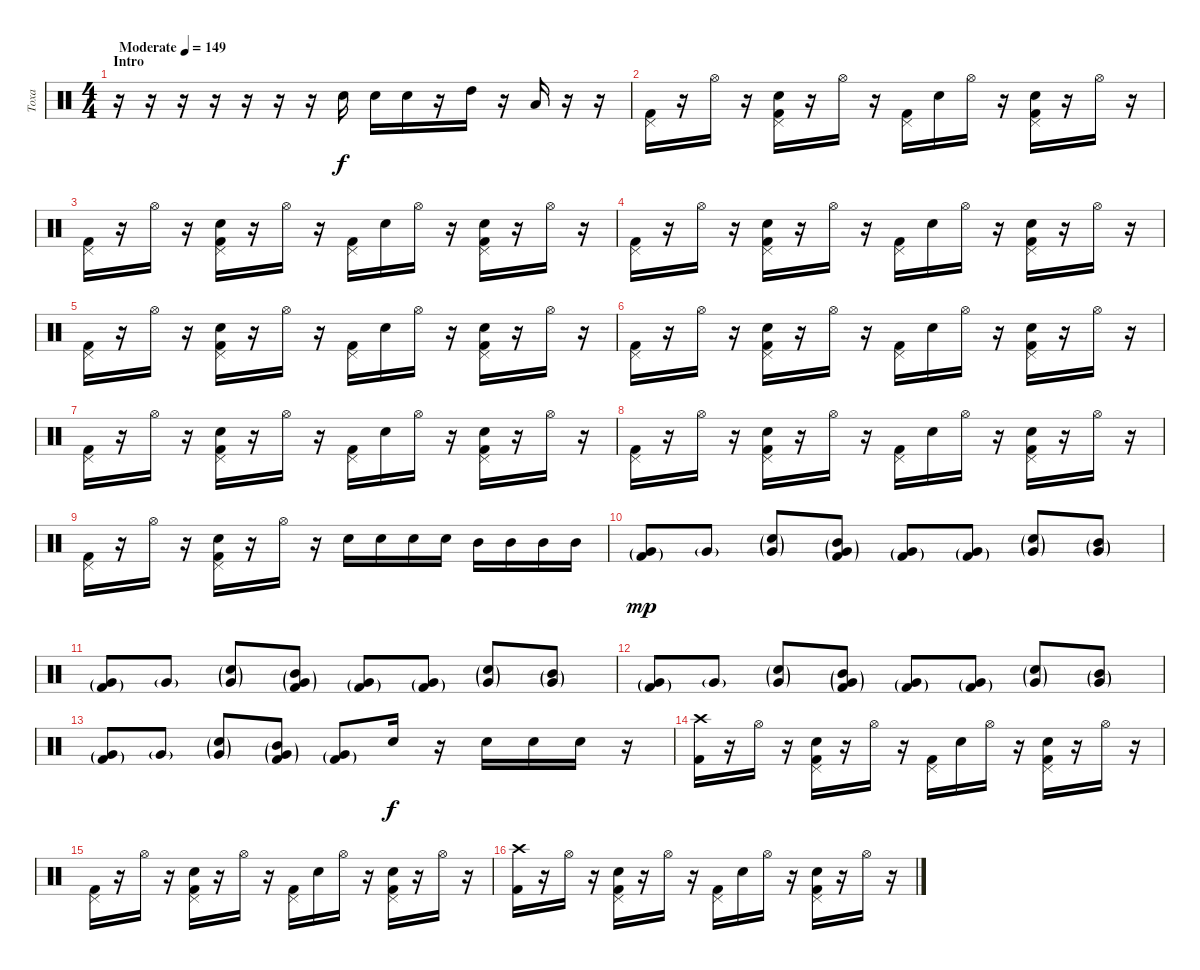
\track ("Toxa" "Toxa") {instrument percussion}
\staff {score}
\articulation defaults
\ts (4 4)
\section ("" "Intro")
\tempo (149 "Moderate")
\clef neutral
\ks c
r.16{dy f} r.16 r.16 r.16 r.16 r.16 r.16 "Snare (hit) 2".16 "Snare (hit) 2".16 "Snare (hit) 2".16 r.16 "High Tom (hit)".16 r.16 "Low Tom (hit)".16 r.16 r.16 |
("Kick (hit) 2" "Pedal Hi-Hat (hit)").16 r.16 "Hi-Hat (open)".16 r.16 ("Snare (hit) 2" "Pedal Hi-Hat (hit)" "Kick (hit) 2").16 r.16 "Hi-Hat (open)".16 r.16 ("Kick (hit) 2" "Pedal Hi-Hat (hit)").16 "Snare (hit) 2".16 "Hi-Hat (open)".16 r.16 ("Snare (hit) 2" "Kick (hit) 2" "Pedal Hi-Hat (hit)").16 r.16 "Hi-Hat (open)".16 r.16 |
("Kick (hit) 2" "Pedal Hi-Hat (hit)").16 r.16 "Hi-Hat (open)".16 r.16 ("Snare (hit) 2" "Pedal Hi-Hat (hit)" "Kick (hit) 2").16 r.16 "Hi-Hat (open)".16 r.16 ("Kick (hit) 2" "Pedal Hi-Hat (hit)").16 "Snare (hit) 2".16 "Hi-Hat (open)".16 r.16 ("Snare (hit) 2" "Kick (hit) 2" "Pedal Hi-Hat (hit)").16 r.16 "Hi-Hat (open)".16 r.16 |
("Kick (hit) 2" "Pedal Hi-Hat (hit)").16 r.16 "Hi-Hat (open)".16 r.16 ("Snare (hit) 2" "Pedal Hi-Hat (hit)" "Kick (hit) 2").16 r.16 "Hi-Hat (open)".16 r.16 ("Kick (hit) 2" "Pedal Hi-Hat (hit)").16 "Snare (hit) 2".16 "Hi-Hat (open)".16 r.16 ("Snare (hit) 2" "Kick (hit) 2" "Pedal Hi-Hat (hit)").16 r.16 "Hi-Hat (open)".16 r.16 |
("Kick (hit) 2" "Pedal Hi-Hat (hit)").16 r.16 "Hi-Hat (open)".16 r.16 ("Snare (hit) 2" "Pedal Hi-Hat (hit)" "Kick (hit) 2").16 r.16 "Hi-Hat (open)".16 r.16 ("Kick (hit) 2" "Pedal Hi-Hat (hit)").16 "Snare (hit) 2".16 "Hi-Hat (open)".16 r.16 ("Snare (hit) 2" "Kick (hit) 2" "Pedal Hi-Hat (hit)").16 r.16 "Hi-Hat (open)".16 r.16 |
("Kick (hit) 2" "Pedal Hi-Hat (hit)").16 r.16 "Hi-Hat (open)".16 r.16 ("Snare (hit) 2" "Pedal Hi-Hat (hit)" "Kick (hit) 2").16 r.16 "Hi-Hat (open)".16 r.16 ("Kick (hit) 2" "Pedal Hi-Hat (hit)").16 "Snare (hit) 2".16 "Hi-Hat (open)".16 r.16 ("Snare (hit) 2" "Kick (hit) 2" "Pedal Hi-Hat (hit)").16 r.16 "Hi-Hat (open)".16 r.16 |
("Kick (hit) 2" "Pedal Hi-Hat (hit)").16 r.16 "Hi-Hat (open)".16 r.16 ("Snare (hit) 2" "Pedal Hi-Hat (hit)" "Kick (hit) 2").16 r.16 "Hi-Hat (open)".16 r.16 ("Kick (hit) 2" "Pedal Hi-Hat (hit)").16 "Snare (hit) 2".16 "Hi-Hat (open)".16 r.16 ("Snare (hit) 2" "Kick (hit) 2" "Pedal Hi-Hat (hit)").16 r.16 "Hi-Hat (open)".16 r.16 |
("Kick (hit) 2" "Pedal Hi-Hat (hit)").16 r.16 "Hi-Hat (open)".16 r.16 ("Snare (hit) 2" "Pedal Hi-Hat (hit)" "Kick (hit) 2").16 r.16 "Hi-Hat (open)".16 r.16 ("Kick (hit) 2" "Pedal Hi-Hat (hit)").16 "Snare (hit) 2".16 "Hi-Hat (open)".16 r.16 ("Snare (hit) 2" "Kick (hit) 2" "Pedal Hi-Hat (hit)").16 r.16 "Hi-Hat (open)".16 r.16 |
("Kick (hit) 2" "Pedal Hi-Hat (hit)").16 r.16 "Hi-Hat (open)".16 r.16 ("Snare (hit) 2" "Pedal Hi-Hat (hit)" "Kick (hit) 2").16 r.16 "Hi-Hat (open)".16 r.16 "Snare (hit) 2".16 "Snare (hit) 2".16 "Snare (hit) 2".16 "Snare (hit) 2".16 "Mid Tom (hit)".16 "Mid Tom (hit)".16 "Mid Tom (hit)".16 "Mid Tom (hit)".16 |
("Kick (hit) 2"{g} "Very Low Tom (hit)"{g}).8{dy mp} "Very Low Tom (hit)"{g}.8 ("Very Low Tom (hit)"{g} "Snare (hit) 2"{g}).8 ("Very Low Tom (hit)"{g} "Kick (hit) 2"{g} "Mid Tom (hit)"{g}).8 ("Very Low Tom (hit)"{g} "Kick (hit) 2"{g}).8 ("Kick (hit) 2"{g} "Very Low Tom (hit)"{g}).8 ("Very Low Tom (hit)"{g} "Snare (hit) 2"{g}).8 ("Very Low Tom (hit)"{g} "Mid Tom (hit)"{g}).8 |
("Kick (hit) 2"{g} "Very Low Tom (hit)"{g}).8 "Very Low Tom (hit)"{g}.8 ("Very Low Tom (hit)"{g} "Snare (hit) 2"{g}).8 ("Very Low Tom (hit)"{g} "Kick (hit) 2"{g} "Mid Tom (hit)"{g}).8 ("Very Low Tom (hit)"{g} "Kick (hit) 2"{g}).8 ("Kick (hit) 2"{g} "Very Low Tom (hit)"{g}).8 ("Very Low Tom (hit)"{g} "Snare (hit) 2"{g}).8 ("Very Low Tom (hit)"{g} "Mid Tom (hit)"{g}).8 |
("Kick (hit) 2"{g} "Very Low Tom (hit)"{g}).8 "Very Low Tom (hit)"{g}.8 ("Very Low Tom (hit)"{g} "Snare (hit) 2"{g}).8 ("Very Low Tom (hit)"{g} "Kick (hit) 2"{g} "Mid Tom (hit)"{g}).8 ("Very Low Tom (hit)"{g} "Kick (hit) 2"{g}).8 ("Kick (hit) 2"{g} "Very Low Tom (hit)"{g}).8 ("Very Low Tom (hit)"{g} "Snare (hit) 2"{g}).8 ("Very Low Tom (hit)"{g} "Mid Tom (hit)"{g}).8 |
("Kick (hit) 2"{g} "Very Low Tom (hit)"{g}).8 "Very Low Tom (hit)"{g}.8 ("Very Low Tom (hit)"{g} "Snare (hit) 2"{g}).8 ("Very Low Tom (hit)"{g} "Kick (hit) 2"{g} "Mid Tom (hit)"{g}).8 ("Very Low Tom (hit)"{g} "Kick (hit) 2"{g}).8 "Snare (hit) 2".16{dy f} r.16 "Snare (hit) 2".16 "Snare (hit) 2".16 "Snare (hit) 2".16 r.16 |
("Kick (hit) 2" "Crash high (hit)").16 r.16 "Hi-Hat (open)".16 r.16 ("Snare (hit) 2" "Pedal Hi-Hat (hit)" "Kick (hit) 2").16 r.16 "Hi-Hat (open)".16 r.16 ("Kick (hit) 2" "Pedal Hi-Hat (hit)").16 "Snare (hit) 2".16 "Hi-Hat (open)".16 r.16 ("Snare (hit) 2" "Kick (hit) 2" "Pedal Hi-Hat (hit)").16 r.16 "Hi-Hat (open)".16 r.16 |
("Kick (hit) 2" "Pedal Hi-Hat (hit)").16 r.16 "Hi-Hat (open)".16 r.16 ("Snare (hit) 2" "Pedal Hi-Hat (hit)" "Kick (hit) 2").16 r.16 "Hi-Hat (open)".16 r.16 ("Kick (hit) 2" "Pedal Hi-Hat (hit)").16 "Snare (hit) 2".16 "Hi-Hat (open)".16 r.16 ("Snare (hit) 2" "Kick (hit) 2" "Pedal Hi-Hat (hit)").16 r.16 "Hi-Hat (open)".16 r.16 |
("Kick (hit) 2" "Crash high (hit)").16 r.16 "Hi-Hat (open)".16 r.16 ("Snare (hit) 2" "Pedal Hi-Hat (hit)" "Kick (hit) 2").16 r.16 "Hi-Hat (open)".16 r.16 ("Kick (hit) 2" "Pedal Hi-Hat (hit)").16 "Snare (hit) 2".16 "Hi-Hat (open)".16 r.16 ("Snare (hit) 2" "Kick (hit) 2" "Pedal Hi-Hat (hit)").16 r.16 "Hi-Hat (open)".16 r.16
